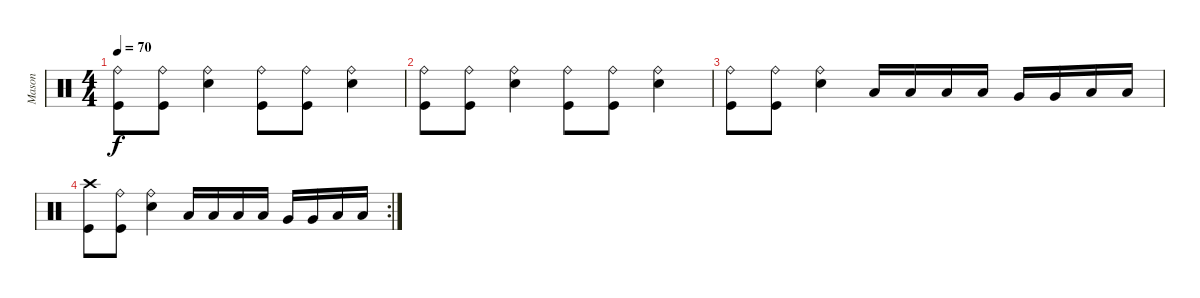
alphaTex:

\track ("Mason" "Mason") {instrument percussion}
\staff {score}
\articulation defaults
\ts (4 4)
\tempo 70
\clef neutral
\ks c
("Kick (hit)" "Ride (bell)").8{dy f} ("Kick (hit)" "Ride (bell)").8 ("Snare (hit) 2" "Ride (bell)").4 ("Kick (hit)" "Ride (bell)").8 ("Kick (hit)" "Ride (bell)").8 ("Snare (hit) 2" "Ride (bell)").4 |
("Kick (hit)" "Ride (bell)").8 ("Kick (hit)" "Ride (bell)").8 ("Snare (hit) 2" "Ride (bell)").4 ("Kick (hit)" "Ride (bell)").8 ("Kick (hit)" "Ride (bell)").8 ("Snare (hit) 2" "Ride (bell)").4 |
("Kick (hit)" "Ride (bell)").8 ("Kick (hit)" "Ride (bell)").8 ("Snare (hit) 2" "Ride (bell)").4 "Low Tom (hit)".16 "Low Tom (hit)".16 "Low Tom (hit)".16 "Low Tom (hit)".16 "Very Low Tom (hit)".16 "Very Low Tom (hit)".16 "Low Floor Tom (hit)".16 "Low Floor Tom (hit)".16 |
\rc 2
("Kick (hit)" "Crash high (hit)").8 ("Kick (hit)" "Ride (bell)").8 ("Snare (hit) 2" "Ride (bell)").4 "Low Tom (hit)".16 "Low Tom (hit)".16 "Low Tom (hit)".16 "Low Tom (hit)".16 "Very Low Tom (hit)".16 "Very Low Tom (hit)".16 "Low Floor Tom (hit)".16 "Low Floor Tom (hit)".16
